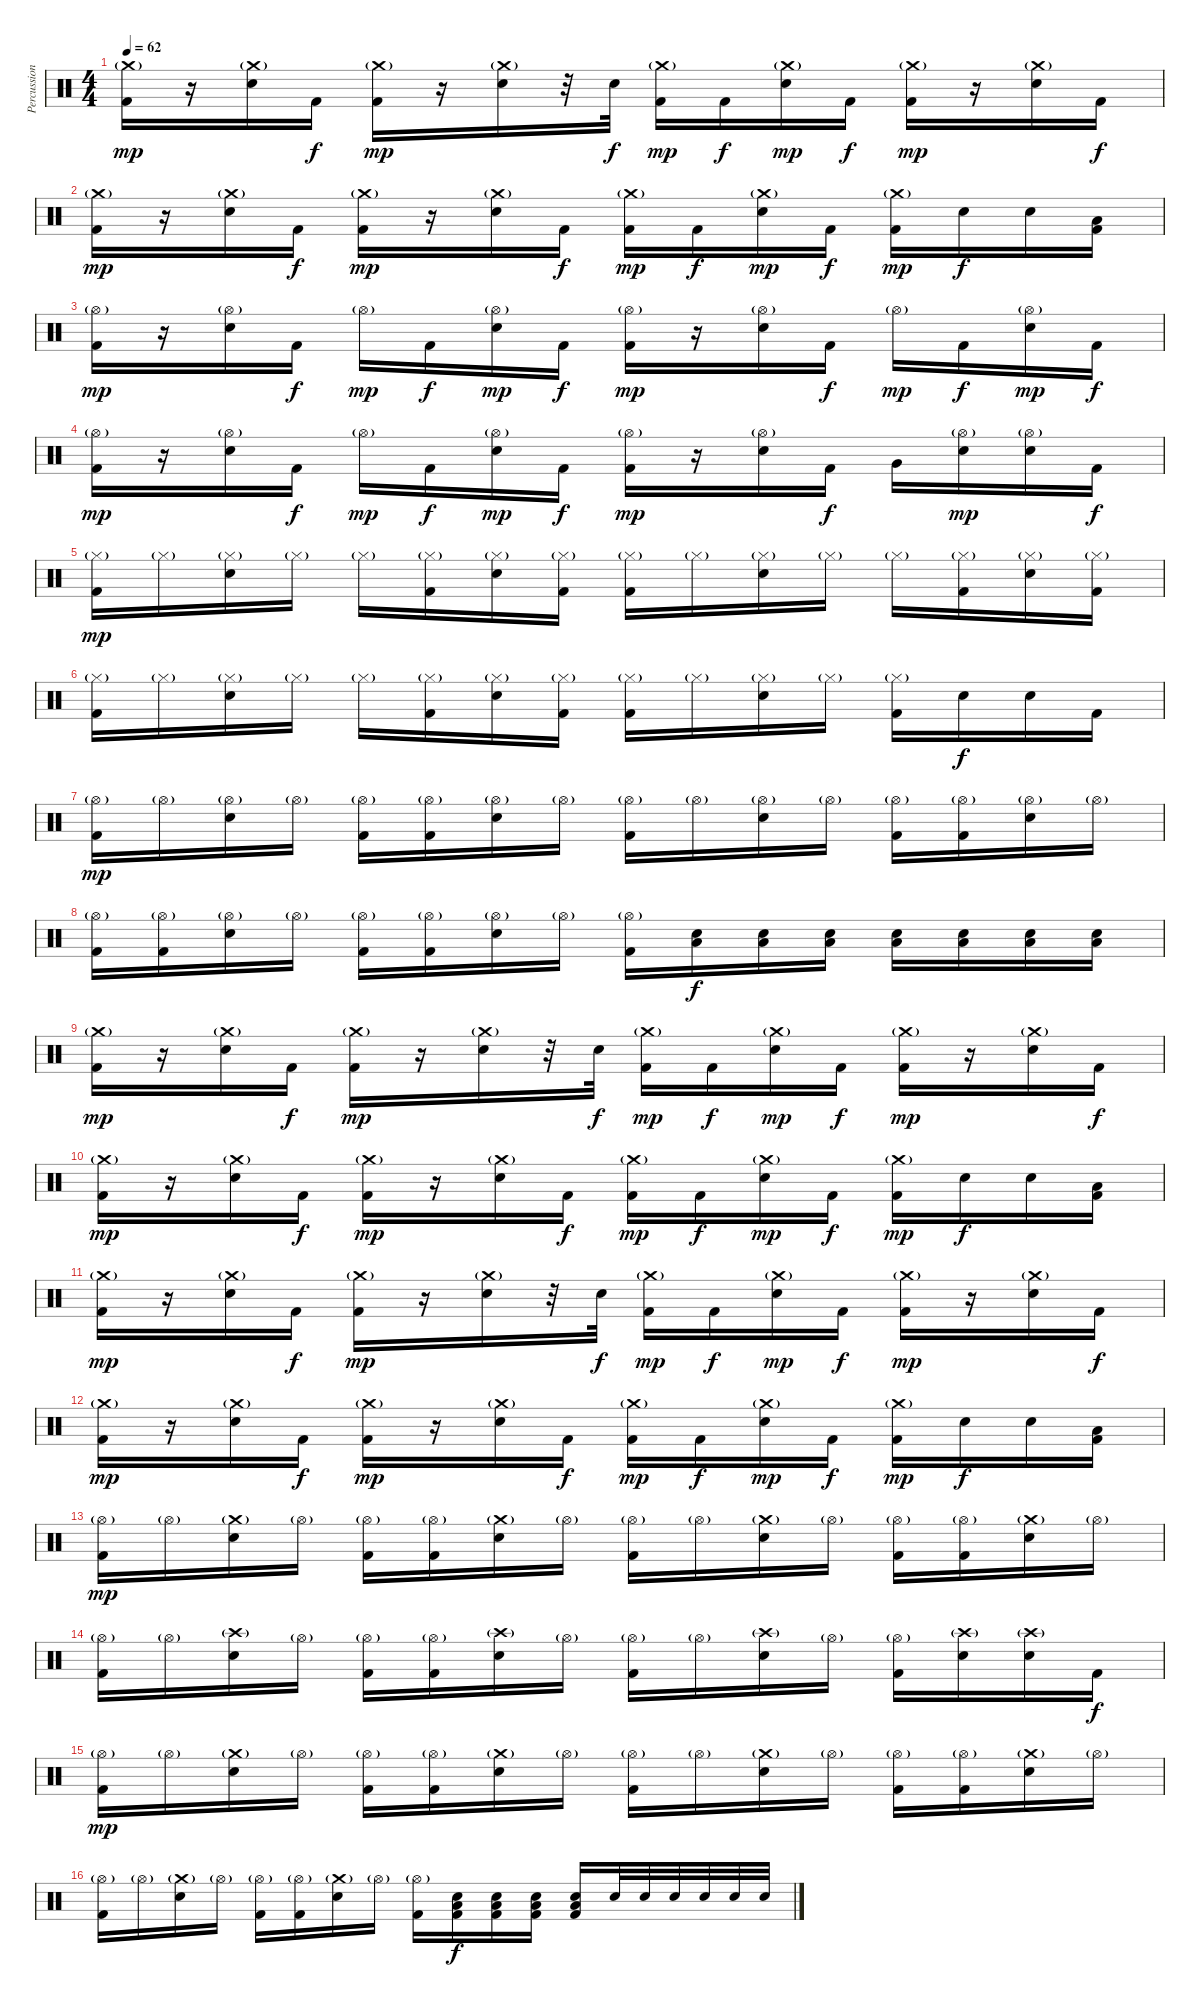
\track ("Percussion" "Percussion") {instrument percussion}
\staff {score}
\articulation defaults
\ts (4 4)
\tempo 62
\clef neutral
\ks c
("Crash medium (hit)"{g} "Kick (hit) 2").16{dy mp} r.16 ("Crash medium (hit)"{g} "Electric Snare (hit)").16 "Kick (hit) 2".16{dy f} ("Crash medium (hit)"{g} "Kick (hit) 2").16{dy mp} r.16 ("Crash medium (hit)"{g} "Electric Snare (hit)").16 r.32 "Electric Snare (hit)".32{dy f} ("Crash medium (hit)"{g} "Kick (hit) 2").16{dy mp} "Kick (hit) 2".16{dy f} ("Crash medium (hit)"{g} "Electric Snare (hit)").16{dy mp} "Kick (hit) 2".16{dy f} ("Crash medium (hit)"{g} "Kick (hit) 2").16{dy mp} r.16 ("Crash medium (hit)"{g} "Electric Snare (hit)").16 "Kick (hit) 2".16{dy f} |
("Crash medium (hit)"{g} "Kick (hit) 2").16{dy mp} r.16 ("Crash medium (hit)"{g} "Electric Snare (hit)").16 "Kick (hit) 2".16{dy f} ("Crash medium (hit)"{g} "Kick (hit) 2").16{dy mp} r.16 ("Crash medium (hit)"{g} "Electric Snare (hit)").16 "Kick (hit) 2".16{dy f} ("Crash medium (hit)"{g} "Kick (hit) 2").16{dy mp} "Kick (hit) 2".16{dy f} ("Crash medium (hit)"{g} "Electric Snare (hit)").16{dy mp} "Kick (hit) 2".16{dy f} ("Crash medium (hit)"{g} "Kick (hit) 2").16{dy mp} "Electric Snare (hit)".16{dy f} "Electric Snare (hit)".16 ("Low Tom (hit)" "Kick (hit) 2").16 |
("Hi-Hat (open)"{g} "Kick (hit) 2").16{dy mp} r.16 ("Hi-Hat (open)"{g} "Electric Snare (hit)").16 "Kick (hit) 2".16{dy f} "Hi-Hat (open)"{g}.16{dy mp} "Kick (hit) 2".16{dy f} ("Hi-Hat (open)"{g} "Electric Snare (hit)").16{dy mp} "Kick (hit) 2".16{dy f} ("Hi-Hat (open)"{g} "Kick (hit) 2").16{dy mp} r.16 ("Hi-Hat (open)"{g} "Electric Snare (hit)").16 "Kick (hit) 2".16{dy f} "Hi-Hat (open)"{g}.16{dy mp} "Kick (hit) 2".16{dy f} ("Hi-Hat (open)"{g} "Electric Snare (hit)").16{dy mp} "Kick (hit) 2".16{dy f} |
("Hi-Hat (open)"{g} "Kick (hit) 2").16{dy mp} r.16 ("Hi-Hat (open)"{g} "Electric Snare (hit)").16 "Kick (hit) 2".16{dy f} "Hi-Hat (open)"{g}.16{dy mp} "Kick (hit) 2".16{dy f} ("Hi-Hat (open)"{g} "Electric Snare (hit)").16{dy mp} "Kick (hit) 2".16{dy f} ("Hi-Hat (open)"{g} "Kick (hit) 2").16{dy mp} r.16 ("Hi-Hat (open)"{g} "Electric Snare (hit)").16 "Kick (hit) 2".16{dy f} "Very Low Tom (hit)".16 ("Hi-Hat (open)"{g} "Electric Snare (hit)").16{dy mp} ("Hi-Hat (open)"{g} "Electric Snare (hit)").16 "Kick (hit) 2".16{dy f} |
("Hi-Hat (closed)"{g} "Kick (hit) 2").16{dy mp} "Hi-Hat (closed)"{g}.16 ("Hi-Hat (closed)"{g} "Electric Snare (hit)").16 "Hi-Hat (closed)"{g}.16 "Hi-Hat (closed)"{g}.16 ("Hi-Hat (closed)"{g} "Kick (hit) 2").16 ("Hi-Hat (closed)"{g} "Electric Snare (hit)").16 ("Hi-Hat (closed)"{g} "Kick (hit) 2").16 ("Hi-Hat (closed)"{g} "Kick (hit) 2").16 "Hi-Hat (closed)"{g}.16 ("Hi-Hat (closed)"{g} "Electric Snare (hit)").16 "Hi-Hat (closed)"{g}.16 "Hi-Hat (closed)"{g}.16 ("Hi-Hat (closed)"{g} "Kick (hit) 2").16 ("Hi-Hat (closed)"{g} "Electric Snare (hit)").16 ("Hi-Hat (closed)"{g} "Kick (hit) 2").16 |
("Hi-Hat (closed)"{g} "Kick (hit) 2").16 "Hi-Hat (closed)"{g}.16 ("Hi-Hat (closed)"{g} "Electric Snare (hit)").16 "Hi-Hat (closed)"{g}.16 "Hi-Hat (closed)"{g}.16 ("Hi-Hat (closed)"{g} "Kick (hit) 2").16 ("Hi-Hat (closed)"{g} "Electric Snare (hit)").16 ("Hi-Hat (closed)"{g} "Kick (hit) 2").16 ("Hi-Hat (closed)"{g} "Kick (hit) 2").16 "Hi-Hat (closed)"{g}.16 ("Hi-Hat (closed)"{g} "Electric Snare (hit)").16 "Hi-Hat (closed)"{g}.16 ("Hi-Hat (closed)"{g} "Kick (hit) 2").16 "Electric Snare (hit)".16{dy f} "Electric Snare (hit)".16 "Kick (hit) 2".16 |
("Hi-Hat (open)"{g} "Kick (hit) 2").16{dy mp} "Hi-Hat (open)"{g}.16 ("Hi-Hat (open)"{g} "Electric Snare (hit)").16 "Hi-Hat (open)"{g}.16 ("Hi-Hat (open)"{g} "Kick (hit) 2").16 ("Hi-Hat (open)"{g} "Kick (hit) 2").16 ("Hi-Hat (open)"{g} "Electric Snare (hit)").16 "Hi-Hat (open)"{g}.16 ("Hi-Hat (open)"{g} "Kick (hit) 2").16 "Hi-Hat (open)"{g}.16 ("Hi-Hat (open)"{g} "Electric Snare (hit)").16 "Hi-Hat (open)"{g}.16 ("Hi-Hat (open)"{g} "Kick (hit) 2").16 ("Hi-Hat (open)"{g} "Kick (hit) 2").16 ("Hi-Hat (open)"{g} "Electric Snare (hit)").16 "Hi-Hat (open)"{g}.16 |
("Hi-Hat (open)"{g} "Kick (hit) 2").16 ("Hi-Hat (open)"{g} "Kick (hit) 2").16 ("Hi-Hat (open)"{g} "Electric Snare (hit)").16 "Hi-Hat (open)"{g}.16 ("Hi-Hat (open)"{g} "Kick (hit) 2").16 ("Hi-Hat (open)"{g} "Kick (hit) 2").16 ("Hi-Hat (open)"{g} "Electric Snare (hit)").16 "Hi-Hat (open)"{g}.16 ("Hi-Hat (open)"{g} "Kick (hit) 2").16 ("Low Floor Tom (hit)" "Electric Snare (hit)").16{dy f} ("Low Floor Tom (hit)" "Electric Snare (hit)").16 ("Low Floor Tom (hit)" "Electric Snare (hit)").16 ("Low Floor Tom (hit)" "Electric Snare (hit)").16 ("Low Floor Tom (hit)" "Electric Snare (hit)").16 ("Low Floor Tom (hit)" "Electric Snare (hit)").16 ("Low Floor Tom (hit)" "Electric Snare (hit)").16 |
("Crash medium (hit)"{g} "Kick (hit) 2").16{dy mp} r.16 ("Crash medium (hit)"{g} "Electric Snare (hit)").16 "Kick (hit) 2".16{dy f} ("Crash medium (hit)"{g} "Kick (hit) 2").16{dy mp} r.16 ("Crash medium (hit)"{g} "Electric Snare (hit)").16 r.32 "Electric Snare (hit)".32{dy f} ("Crash medium (hit)"{g} "Kick (hit) 2").16{dy mp} "Kick (hit) 2".16{dy f} ("Crash medium (hit)"{g} "Electric Snare (hit)").16{dy mp} "Kick (hit) 2".16{dy f} ("Crash medium (hit)"{g} "Kick (hit) 2").16{dy mp} r.16 ("Crash medium (hit)"{g} "Electric Snare (hit)").16 "Kick (hit) 2".16{dy f} |
("Crash medium (hit)"{g} "Kick (hit) 2").16{dy mp} r.16 ("Crash medium (hit)"{g} "Electric Snare (hit)").16 "Kick (hit) 2".16{dy f} ("Crash medium (hit)"{g} "Kick (hit) 2").16{dy mp} r.16 ("Crash medium (hit)"{g} "Electric Snare (hit)").16 "Kick (hit) 2".16{dy f} ("Crash medium (hit)"{g} "Kick (hit) 2").16{dy mp} "Kick (hit) 2".16{dy f} ("Crash medium (hit)"{g} "Electric Snare (hit)").16{dy mp} "Kick (hit) 2".16{dy f} ("Crash medium (hit)"{g} "Kick (hit) 2").16{dy mp} "Electric Snare (hit)".16{dy f} "Electric Snare (hit)".16 ("Low Tom (hit)" "Kick (hit) 2").16 |
("Crash medium (hit)"{g} "Kick (hit) 2").16{dy mp} r.16 ("Crash medium (hit)"{g} "Electric Snare (hit)").16 "Kick (hit) 2".16{dy f} ("Crash medium (hit)"{g} "Kick (hit) 2").16{dy mp} r.16 ("Crash medium (hit)"{g} "Electric Snare (hit)").16 r.32 "Electric Snare (hit)".32{dy f} ("Crash medium (hit)"{g} "Kick (hit) 2").16{dy mp} "Kick (hit) 2".16{dy f} ("Crash medium (hit)"{g} "Electric Snare (hit)").16{dy mp} "Kick (hit) 2".16{dy f} ("Crash medium (hit)"{g} "Kick (hit) 2").16{dy mp} r.16 ("Crash medium (hit)"{g} "Electric Snare (hit)").16 "Kick (hit) 2".16{dy f} |
("Crash medium (hit)"{g} "Kick (hit) 2").16{dy mp} r.16 ("Crash medium (hit)"{g} "Electric Snare (hit)").16 "Kick (hit) 2".16{dy f} ("Crash medium (hit)"{g} "Kick (hit) 2").16{dy mp} r.16 ("Crash medium (hit)"{g} "Electric Snare (hit)").16 "Kick (hit) 2".16{dy f} ("Crash medium (hit)"{g} "Kick (hit) 2").16{dy mp} "Kick (hit) 2".16{dy f} ("Crash medium (hit)"{g} "Electric Snare (hit)").16{dy mp} "Kick (hit) 2".16{dy f} ("Crash medium (hit)"{g} "Kick (hit) 2").16{dy mp} "Electric Snare (hit)".16{dy f} "Electric Snare (hit)".16 ("Low Tom (hit)" "Kick (hit) 2").16 |
("Hi-Hat (open)"{g} "Kick (hit) 2").16{dy mp} "Hi-Hat (open)"{g}.16 ("Crash medium (hit)"{g} "Electric Snare (hit)").16 "Hi-Hat (open)"{g}.16 ("Hi-Hat (open)"{g} "Kick (hit) 2").16 ("Hi-Hat (open)"{g} "Kick (hit) 2").16 ("Crash medium (hit)"{g} "Electric Snare (hit)").16 "Hi-Hat (open)"{g}.16 ("Hi-Hat (open)"{g} "Kick (hit) 2").16 "Hi-Hat (open)"{g}.16 ("Crash medium (hit)"{g} "Electric Snare (hit)").16 "Hi-Hat (open)"{g}.16 ("Hi-Hat (open)"{g} "Kick (hit) 2").16 ("Hi-Hat (open)"{g} "Kick (hit) 2").16 ("Crash medium (hit)"{g} "Electric Snare (hit)").16 "Hi-Hat (open)"{g}.16 |
("Hi-Hat (open)"{g} "Kick (hit) 2").16 "Hi-Hat (open)"{g}.16 ("Crash high (hit)"{g} "Electric Snare (hit)").16 "Hi-Hat (open)"{g}.16 ("Hi-Hat (open)"{g} "Kick (hit) 2").16 ("Hi-Hat (open)"{g} "Kick (hit) 2").16 ("Crash high (hit)"{g} "Electric Snare (hit)").16 "Hi-Hat (open)"{g}.16 ("Hi-Hat (open)"{g} "Kick (hit) 2").16 "Hi-Hat (open)"{g}.16 ("Crash high (hit)"{g} "Electric Snare (hit)").16 "Hi-Hat (open)"{g}.16 ("Hi-Hat (open)"{g} "Kick (hit) 2").16 ("Crash high (hit)"{g} "Electric Snare (hit)").16 ("Crash high (hit)"{g} "Electric Snare (hit)").16 "Kick (hit) 2".16{dy f} |
("Hi-Hat (open)"{g} "Kick (hit) 2").16{dy mp} "Hi-Hat (open)"{g}.16 ("Crash medium (hit)"{g} "Electric Snare (hit)").16 "Hi-Hat (open)"{g}.16 ("Hi-Hat (open)"{g} "Kick (hit) 2").16 ("Hi-Hat (open)"{g} "Kick (hit) 2").16 ("Crash medium (hit)"{g} "Electric Snare (hit)").16 "Hi-Hat (open)"{g}.16 ("Hi-Hat (open)"{g} "Kick (hit) 2").16 "Hi-Hat (open)"{g}.16 ("Crash medium (hit)"{g} "Electric Snare (hit)").16 "Hi-Hat (open)"{g}.16 ("Hi-Hat (open)"{g} "Kick (hit) 2").16 ("Hi-Hat (open)"{g} "Kick (hit) 2").16 ("Crash medium (hit)"{g} "Electric Snare (hit)").16 "Hi-Hat (open)"{g}.16 |
("Hi-Hat (open)"{g} "Kick (hit) 2").16 "Hi-Hat (open)"{g}.16 ("Crash medium (hit)"{g} "Electric Snare (hit)").16 "Hi-Hat (open)"{g}.16 ("Hi-Hat (open)"{g} "Kick (hit) 2").16 ("Hi-Hat (open)"{g} "Kick (hit) 2").16 ("Crash medium (hit)"{g} "Electric Snare (hit)").16 "Hi-Hat (open)"{g}.16 ("Hi-Hat (open)"{g} "Kick (hit) 2").16 ("Electric Snare (hit)" "Low Floor Tom (hit)" "Kick (hit) 2").16{dy f} ("Electric Snare (hit)" "Low Floor Tom (hit)" "Kick (hit) 2").16 ("Electric Snare (hit)" "Low Floor Tom (hit)" "Kick (hit) 2").16 ("Electric Snare (hit)" "Low Floor Tom (hit)" "Kick (hit) 2").16 "Electric Snare (hit)".32 "Electric Snare (hit)".32 "Electric Snare (hit)".32 "Electric Snare (hit)".32 "Electric Snare (hit)".32 "Electric Snare (hit)".32
